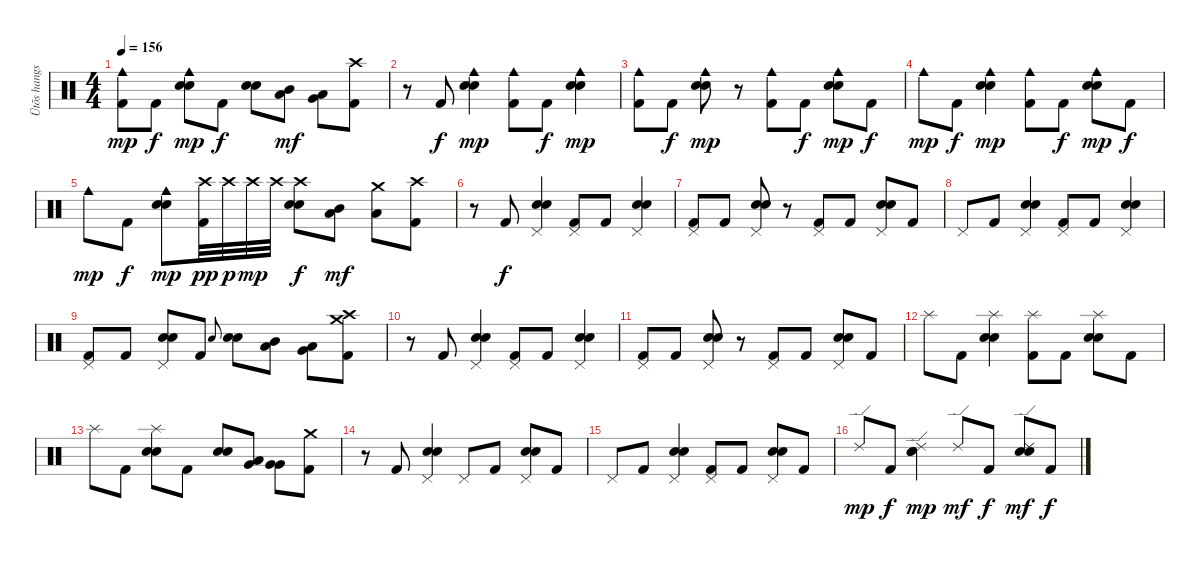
\track ("Ütõs hangszer" "Ütõs hangs") {instrument percussion}
\staff {score}
\articulation defaults
\ts (4 4)
\tempo 156
\clef neutral
\ks c
("Cowbell medium (hit)" "Kick (hit) 2").8{dy mp} "Kick (hit) 2".8{dy f} ("Cowbell medium (hit)" "Snare (hit) 2" "Electric Snare (hit)").8{dy mp} "Kick (hit) 2".8{dy f} ("Snare (hit) 2" "Electric Snare (hit)").8 ("Mid Tom (hit)" "Low Tom (hit)").8{dy mf} ("Low Tom (hit)" "Very Low Tom (hit)").8 ("Crash high (hit)" "Kick (hit) 2").8 |
r.8 "Kick (hit) 2".8{dy f} ("Cowbell medium (hit)" "Snare (hit) 2" "Electric Snare (hit)").4{dy mp} ("Cowbell medium (hit)" "Kick (hit) 2").8 "Kick (hit) 2".8{dy f} ("Cowbell medium (hit)" "Snare (hit) 2" "Electric Snare (hit)").4{dy mp} |
("Cowbell medium (hit)" "Kick (hit) 2").8 "Kick (hit) 2".8{dy f} ("Cowbell medium (hit)" "Snare (hit) 2" "Electric Snare (hit)").8{dy mp} r.8 ("Cowbell medium (hit)" "Kick (hit) 2").8 "Kick (hit) 2".8{dy f} ("Cowbell medium (hit)" "Snare (hit) 2" "Electric Snare (hit)").8{dy mp} "Kick (hit) 2".8{dy f} |
"Cowbell medium (hit)".8{dy mp} "Kick (hit) 2".8{dy f} ("Cowbell medium (hit)" "Snare (hit) 2" "Electric Snare (hit)").4{dy mp} ("Cowbell medium (hit)" "Kick (hit) 2").8 "Kick (hit) 2".8{dy f} ("Cowbell medium (hit)" "Snare (hit) 2" "Electric Snare (hit)").8{dy mp} "Kick (hit) 2".8{dy f} |
"Cowbell medium (hit)".8{dy mp} "Kick (hit) 2".8{dy f} ("Cowbell medium (hit)" "Snare (hit) 2" "Electric Snare (hit)").8{dy mp} ("Crash high (hit)" "Kick (hit) 2").32{dy pp} "Crash high (hit)".32{dy p} "Crash high (hit)".32{dy mp} "Crash high (hit)".32 ("Crash high (hit)" "Snare (hit) 2" "Electric Snare (hit)").8{dy f} ("Mid Tom (hit)" "Low Tom (hit)").8{dy mf} ("Crash medium (hit)" "Low Tom (hit)").8 ("Crash high (hit)" "Kick (hit) 2").8 |
r.8 "Kick (hit) 2".8{dy f} ("Pedal Hi-Hat (hit)" "Snare (hit) 2" "Electric Snare (hit)").4 ("Pedal Hi-Hat (hit)" "Kick (hit) 2").8 "Kick (hit) 2".8 ("Pedal Hi-Hat (hit)" "Snare (hit) 2" "Electric Snare (hit)").4 |
("Pedal Hi-Hat (hit)" "Kick (hit) 2").8 "Kick (hit) 2".8 ("Pedal Hi-Hat (hit)" "Snare (hit) 2" "Electric Snare (hit)").8 r.8 ("Pedal Hi-Hat (hit)" "Kick (hit) 2").8 "Kick (hit) 2".8 ("Pedal Hi-Hat (hit)" "Snare (hit) 2" "Electric Snare (hit)").8 "Kick (hit) 2".8 |
"Pedal Hi-Hat (hit)".8 "Kick (hit) 2".8 ("Pedal Hi-Hat (hit)" "Snare (hit) 2" "Electric Snare (hit)").4 ("Pedal Hi-Hat (hit)" "Kick (hit) 2").8 "Kick (hit) 2".8 ("Pedal Hi-Hat (hit)" "Snare (hit) 2" "Electric Snare (hit)").4 |
("Pedal Hi-Hat (hit)" "Kick (hit) 2").8 "Kick (hit) 2".8 ("Pedal Hi-Hat (hit)" "Snare (hit) 2" "Electric Snare (hit)").8 "Kick (hit) 2".8 "Electric Snare (hit)".8{gr onbeat} ("Snare (hit) 2" "Electric Snare (hit)").8 ("Mid Tom (hit)" "Low Tom (hit)").8 ("Low Tom (hit)" "Very Low Tom (hit)").8 ("Crash high (hit)" "Crash medium (hit)" "Kick (hit) 2").8 |
r.8 "Kick (hit) 2".8 ("Pedal Hi-Hat (hit)" "Snare (hit) 2" "Electric Snare (hit)").4 ("Pedal Hi-Hat (hit)" "Kick (hit) 2").8 "Kick (hit) 2".8 ("Pedal Hi-Hat (hit)" "Snare (hit) 2" "Electric Snare (hit)").4 |
("Pedal Hi-Hat (hit)" "Kick (hit) 2").8 "Kick (hit) 2".8 ("Pedal Hi-Hat (hit)" "Snare (hit) 2" "Electric Snare (hit)").8 r.8 ("Pedal Hi-Hat (hit)" "Kick (hit) 2").8 "Kick (hit) 2".8 ("Pedal Hi-Hat (hit)" "Snare (hit) 2" "Electric Snare (hit)").8 "Kick (hit) 2".8 |
"Splash (hit)".8 "Kick (hit) 2".8 ("Splash (hit)" "Snare (hit) 2" "Electric Snare (hit)").4 ("Splash (hit)" "Kick (hit) 2").8 "Kick (hit) 2".8 ("Splash (hit)" "Snare (hit) 2" "Electric Snare (hit)").8 "Kick (hit) 2".8 |
"Splash (hit)".8 "Kick (hit) 2".8 ("Splash (hit)" "Snare (hit) 2" "Electric Snare (hit)").8 "Kick (hit) 2".8 ("Snare (hit) 2" "Electric Snare (hit)").8 ("Low Tom (hit)" "Very Low Tom (hit)").8 ("Very Low Tom (hit)" "Very Low Tom (hit)").8 ("Crash medium (hit)" "Kick (hit) 2").8 |
r.8 "Kick (hit) 2".8 ("Pedal Hi-Hat (hit)" "Snare (hit) 2" "Electric Snare (hit)").4 "Pedal Hi-Hat (hit)".8 "Kick (hit) 2".8 ("Pedal Hi-Hat (hit)" "Snare (hit) 2" "Electric Snare (hit)").8 "Kick (hit) 2".8 |
"Pedal Hi-Hat (hit)".8 "Kick (hit) 2".8 ("Pedal Hi-Hat (hit)" "Snare (hit) 2" "Electric Snare (hit)").4 ("Pedal Hi-Hat (hit)" "Kick (hit) 2").8 "Kick (hit) 2".8 ("Pedal Hi-Hat (hit)" "Snare (hit) 2" "Electric Snare (hit)").8 "Kick (hit) 2".8 |
"Ride (edge) 2".8{dy mp} "Kick (hit) 2".8{dy f} ("Ride (edge) 2" "Snare (hit) 2" "Electric Snare (hit)").4{dy mp} "Ride (edge) 2".8{dy mf} "Kick (hit) 2".8{dy f} ("Ride (edge) 2" "Snare (hit) 2" "Electric Snare (hit)").8{dy mf} "Kick (hit) 2".8{dy f}
